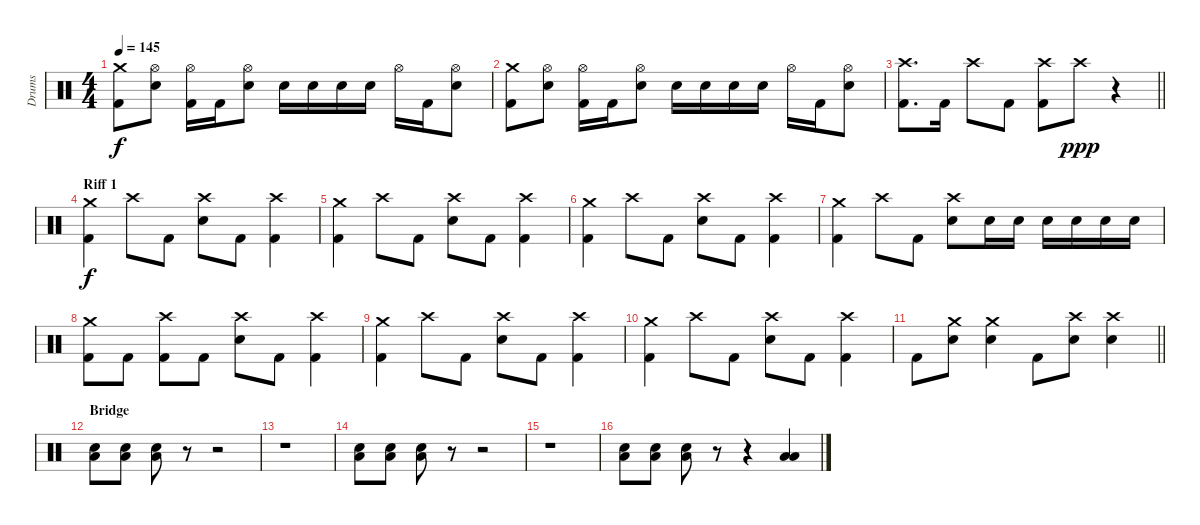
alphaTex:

\track ("Drums" "Drums") {instrument percussion}
\staff {score}
\articulation defaults
\ts (4 4)
\tempo 145
\clef neutral
\ks c
("Crash medium (hit)" "Kick (hit) 2").8{dy f} ("Electric Snare (hit)" "Hi-Hat (open)").8 ("Kick (hit) 2" "Hi-Hat (open)").16 "Kick (hit) 2".16 ("Electric Snare (hit)" "Hi-Hat (open)").8 "Electric Snare (hit)".16 "Electric Snare (hit)".16 "Electric Snare (hit)".16 "Electric Snare (hit)".16 "Hi-Hat (open)".16 "Kick (hit) 2".16 ("Electric Snare (hit)" "Hi-Hat (open)").8 |
("Crash medium (hit)" "Kick (hit) 2").8 ("Electric Snare (hit)" "Hi-Hat (open)").8 ("Kick (hit) 2" "Hi-Hat (open)").16 "Kick (hit) 2".16 ("Electric Snare (hit)" "Hi-Hat (open)").8 "Electric Snare (hit)".16 "Electric Snare (hit)".16 "Electric Snare (hit)".16 "Electric Snare (hit)".16 "Hi-Hat (open)".16 "Kick (hit) 2".16 ("Electric Snare (hit)" "Hi-Hat (open)").8 |
\barLineRight lightlight
("Crash high (hit)" "Kick (hit) 2").8{d} "Kick (hit) 2".16 "Crash high (hit)".8 "Kick (hit) 2".8 ("Crash high (hit)" "Kick (hit) 2").8 "Crash high (hit)".8{dy ppp} r.4 |
\section ("" "Riff 1")
("Crash medium (hit)" "Kick (hit) 2").4{dy f} "Crash high (hit)".8 "Kick (hit) 2".8 ("Crash high (hit)" "Electric Snare (hit)").8 "Kick (hit) 2".8 ("Kick (hit) 2" "Crash high (hit)").4 |
("Crash medium (hit)" "Kick (hit) 2").4 "Crash high (hit)".8 "Kick (hit) 2".8 ("Crash high (hit)" "Electric Snare (hit)").8 "Kick (hit) 2".8 ("Kick (hit) 2" "Crash high (hit)").4 |
("Crash medium (hit)" "Kick (hit) 2").4 "Crash high (hit)".8 "Kick (hit) 2".8 ("Crash high (hit)" "Electric Snare (hit)").8 "Kick (hit) 2".8 ("Kick (hit) 2" "Crash high (hit)").4 |
("Crash medium (hit)" "Kick (hit) 2").4 "Crash high (hit)".8 "Kick (hit) 2".8 ("Crash high (hit)" "Electric Snare (hit)").8 "Electric Snare (hit)".16 "Electric Snare (hit)".16 "Electric Snare (hit)".16 "Electric Snare (hit)".16 "Electric Snare (hit)".16 "Electric Snare (hit)".16 |
("Crash medium (hit)" "Kick (hit) 2").8 "Kick (hit) 2".8 ("Crash high (hit)" "Kick (hit) 2").8 "Kick (hit) 2".8 ("Crash high (hit)" "Electric Snare (hit)").8 "Kick (hit) 2".8 ("Crash high (hit)" "Kick (hit) 2").4 |
("Crash medium (hit)" "Kick (hit) 2").4 "Crash high (hit)".8 "Kick (hit) 2".8 ("Crash high (hit)" "Electric Snare (hit)").8 "Kick (hit) 2".8 ("Kick (hit) 2" "Crash high (hit)").4 |
("Crash medium (hit)" "Kick (hit) 2").4 "Crash high (hit)".8 "Kick (hit) 2".8 ("Crash high (hit)" "Electric Snare (hit)").8 "Kick (hit) 2".8 ("Kick (hit) 2" "Crash high (hit)").4 |
\barLineRight lightlight "Kick (hit) 2".8
("Crash medium (hit)" "Electric Snare (hit)").8 ("Crash medium (hit)" "Electric Snare (hit)").4 "Kick (hit) 2".8 ("Crash high (hit)" "Electric Snare (hit)").8 ("Crash high (hit)" "Electric Snare (hit)").4 |
\section ("" "Bridge")
("Electric Snare (hit)" "Low Floor Tom (hit)").8 ("Electric Snare (hit)" "Low Floor Tom (hit)").8 ("Electric Snare (hit)" "Low Floor Tom (hit)").8 r.8 r.2 |
r.1 |
("Electric Snare (hit)" "Low Floor Tom (hit)").8 ("Electric Snare (hit)" "Low Floor Tom (hit)").8 ("Electric Snare (hit)" "Low Floor Tom (hit)").8 r.8 r.2 |
r.1 |
("Electric Snare (hit)" "Low Floor Tom (hit)").8 ("Electric Snare (hit)" "Low Floor Tom (hit)").8 ("Electric Snare (hit)" "Low Floor Tom (hit)").8 r.8 r.4 ("Low Tom (hit)" "Low Floor Tom (hit)").4
